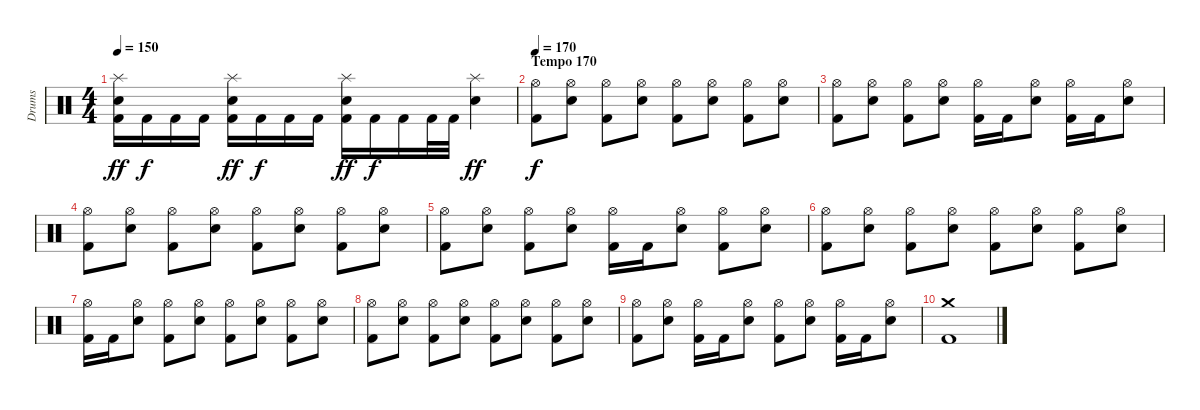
\track ("Drums" "Drums") {instrument percussion}
\staff {score}
\articulation defaults
\ts (4 4)
\tempo 150
\clef neutral
\ks c
("Splash (hit)" "Electric Snare (hit)" "Kick (hit) 2").16{dy ff} "Kick (hit) 2".16{dy f} "Kick (hit) 2".16 "Kick (hit) 2".16 ("Splash (hit)" "Electric Snare (hit)" "Kick (hit) 2").16{dy ff} "Kick (hit) 2".16{dy f} "Kick (hit) 2".16 "Kick (hit) 2".16 ("Splash (hit)" "Electric Snare (hit)" "Kick (hit) 2").16{dy ff} "Kick (hit) 2".16{dy f} "Kick (hit) 2".16 "Kick (hit) 2".32 "Kick (hit) 2".32 ("Splash (hit)" "Electric Snare (hit)").4{dy ff} |
\section ("" "Tempo 170")
\tempo 170
("Hi-Hat (open)" "Kick (hit) 2").8{dy f} ("Hi-Hat (open)" "Electric Snare (hit)").8 ("Hi-Hat (open)" "Kick (hit) 2").8 ("Hi-Hat (open)" "Electric Snare (hit)").8 ("Hi-Hat (open)" "Kick (hit) 2").8 ("Hi-Hat (open)" "Electric Snare (hit)").8 ("Hi-Hat (open)" "Kick (hit) 2").8 ("Hi-Hat (open)" "Electric Snare (hit)").8 |
("Hi-Hat (open)" "Kick (hit) 2").8 ("Hi-Hat (open)" "Electric Snare (hit)").8 ("Hi-Hat (open)" "Kick (hit) 2").8 ("Hi-Hat (open)" "Electric Snare (hit)").8 ("Hi-Hat (open)" "Kick (hit) 2").16 "Kick (hit) 2".16 ("Hi-Hat (open)" "Electric Snare (hit)").8 ("Hi-Hat (open)" "Kick (hit) 2").16 "Kick (hit) 2".16 ("Hi-Hat (open)" "Electric Snare (hit)").8 |
("Hi-Hat (open)" "Kick (hit) 2").8 ("Hi-Hat (open)" "Electric Snare (hit)").8 ("Hi-Hat (open)" "Kick (hit) 2").8 ("Hi-Hat (open)" "Electric Snare (hit)").8 ("Hi-Hat (open)" "Kick (hit) 2").8 ("Hi-Hat (open)" "Electric Snare (hit)").8 ("Hi-Hat (open)" "Kick (hit) 2").8 ("Hi-Hat (open)" "Electric Snare (hit)").8 |
("Hi-Hat (open)" "Kick (hit) 2").8 ("Hi-Hat (open)" "Electric Snare (hit)").8 ("Hi-Hat (open)" "Kick (hit) 2").8 ("Hi-Hat (open)" "Electric Snare (hit)").8 ("Hi-Hat (open)" "Kick (hit) 2").16 "Kick (hit) 2".16 ("Hi-Hat (open)" "Electric Snare (hit)").8 ("Hi-Hat (open)" "Kick (hit) 2").8 ("Hi-Hat (open)" "Electric Snare (hit)").8 |
("Hi-Hat (open)" "Kick (hit) 2").8 ("Hi-Hat (open)" "Electric Snare (hit)").8 ("Hi-Hat (open)" "Kick (hit) 2").8 ("Hi-Hat (open)" "Electric Snare (hit)").8 ("Hi-Hat (open)" "Kick (hit) 2").8 ("Hi-Hat (open)" "Electric Snare (hit)").8 ("Hi-Hat (open)" "Kick (hit) 2").8 ("Hi-Hat (open)" "Electric Snare (hit)").8 |
("Hi-Hat (open)" "Kick (hit) 2").16 "Kick (hit) 2".16 ("Hi-Hat (open)" "Electric Snare (hit)").8 ("Hi-Hat (open)" "Kick (hit) 2").8 ("Hi-Hat (open)" "Electric Snare (hit)").8 ("Hi-Hat (open)" "Kick (hit) 2").8 ("Hi-Hat (open)" "Electric Snare (hit)").8 ("Hi-Hat (open)" "Kick (hit) 2").8 ("Hi-Hat (open)" "Electric Snare (hit)").8 |
("Hi-Hat (open)" "Kick (hit) 2").8 ("Hi-Hat (open)" "Electric Snare (hit)").8 ("Hi-Hat (open)" "Kick (hit) 2").8 ("Hi-Hat (open)" "Electric Snare (hit)").8 ("Hi-Hat (open)" "Kick (hit) 2").8 ("Hi-Hat (open)" "Electric Snare (hit)").8 ("Hi-Hat (open)" "Kick (hit) 2").8 ("Hi-Hat (open)" "Electric Snare (hit)").8 |
("Hi-Hat (open)" "Kick (hit) 2").8 ("Hi-Hat (open)" "Electric Snare (hit)").8 ("Hi-Hat (open)" "Kick (hit) 2").16 "Kick (hit) 2".16 ("Hi-Hat (open)" "Electric Snare (hit)").8 ("Hi-Hat (open)" "Kick (hit) 2").8 ("Hi-Hat (open)" "Electric Snare (hit)").8 ("Hi-Hat (open)" "Kick (hit) 2").16 "Kick (hit) 2".16 ("Hi-Hat (open)" "Electric Snare (hit)").8 |
("Crash medium (hit)" "Kick (hit) 2").1
